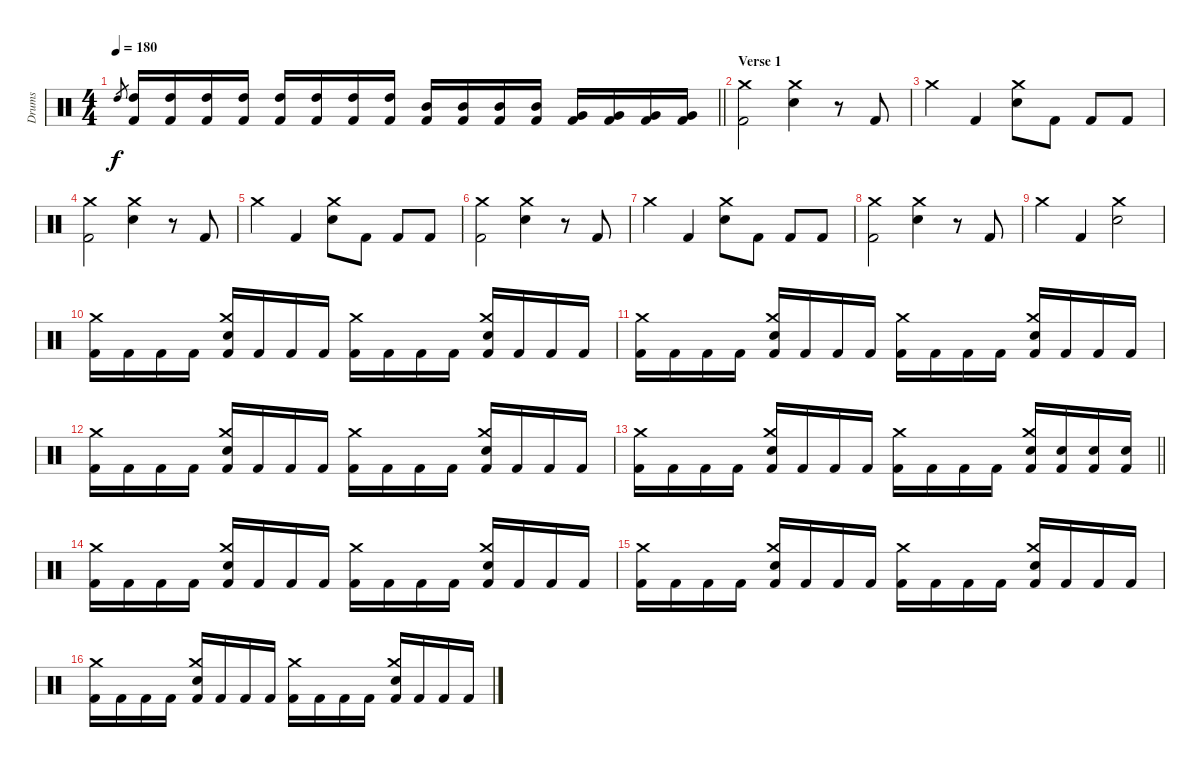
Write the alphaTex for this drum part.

\track ("Drums" "Drums") {instrument percussion}
\staff {score}
\articulation defaults
\ts (4 4)
\tempo 180
\clef neutral
\barLineRight lightlight
\ks c "High Tom (hit)".8{gr dy f}
("High Tom (hit)" "Kick (hit) 2").16 ("High Tom (hit)" "Kick (hit) 2").16 ("High Tom (hit)" "Kick (hit) 2").16 ("High Tom (hit)" "Kick (hit) 2").16 ("High Tom (hit)" "Kick (hit) 2").16 ("High Tom (hit)" "Kick (hit) 2").16 ("High Tom (hit)" "Kick (hit) 2").16 ("High Tom (hit)" "Kick (hit) 2").16 ("Mid Tom (hit)" "Kick (hit) 2").16 ("Mid Tom (hit)" "Kick (hit) 2").16 ("Mid Tom (hit)" "Kick (hit) 2").16 ("Mid Tom (hit)" "Kick (hit) 2").16 ("Very Low Tom (hit)" "Kick (hit) 2").16 ("Very Low Tom (hit)" "Kick (hit) 2").16 ("Very Low Tom (hit)" "Kick (hit) 2").16 ("Very Low Tom (hit)" "Kick (hit) 2").16 |
\section ("" "Verse 1")
("Crash medium (hit)" "Kick (hit) 2").2 ("Crash medium (hit)" "Snare (hit) 2").4 r.8 "Kick (hit) 2".8 |
"Crash medium (hit)".4 "Kick (hit) 2".4 ("Crash medium (hit)" "Snare (hit) 2").8 "Kick (hit) 2".8 "Kick (hit) 2".8 "Kick (hit) 2".8 |
("Crash medium (hit)" "Kick (hit) 2").2 ("Crash medium (hit)" "Snare (hit) 2").4 r.8 "Kick (hit) 2".8 |
"Crash medium (hit)".4 "Kick (hit) 2".4 ("Crash medium (hit)" "Snare (hit) 2").8 "Kick (hit) 2".8 "Kick (hit) 2".8 "Kick (hit) 2".8 |
("Crash medium (hit)" "Kick (hit) 2").2 ("Crash medium (hit)" "Snare (hit) 2").4 r.8 "Kick (hit) 2".8 |
"Crash medium (hit)".4 "Kick (hit) 2".4 ("Crash medium (hit)" "Snare (hit) 2").8 "Kick (hit) 2".8 "Kick (hit) 2".8 "Kick (hit) 2".8 |
("Crash medium (hit)" "Kick (hit) 2").2 ("Crash medium (hit)" "Snare (hit) 2").4 r.8 "Kick (hit) 2".8 |
"Crash medium (hit)".4 "Kick (hit) 2".4 ("Crash medium (hit)" "Snare (hit) 2").2 |
("Crash medium (hit)" "Kick (hit) 2").16 "Kick (hit) 2".16 "Kick (hit) 2".16 "Kick (hit) 2".16 ("Crash medium (hit)" "Snare (hit) 2" "Kick (hit) 2").16 "Kick (hit) 2".16 "Kick (hit) 2".16 "Kick (hit) 2".16 ("Crash medium (hit)" "Kick (hit) 2").16 "Kick (hit) 2".16 "Kick (hit) 2".16 "Kick (hit) 2".16 ("Crash medium (hit)" "Snare (hit) 2" "Kick (hit) 2").16 "Kick (hit) 2".16 "Kick (hit) 2".16 "Kick (hit) 2".16 |
("Crash medium (hit)" "Kick (hit) 2").16 "Kick (hit) 2".16 "Kick (hit) 2".16 "Kick (hit) 2".16 ("Crash medium (hit)" "Snare (hit) 2" "Kick (hit) 2").16 "Kick (hit) 2".16 "Kick (hit) 2".16 "Kick (hit) 2".16 ("Crash medium (hit)" "Kick (hit) 2").16 "Kick (hit) 2".16 "Kick (hit) 2".16 "Kick (hit) 2".16 ("Crash medium (hit)" "Snare (hit) 2" "Kick (hit) 2").16 "Kick (hit) 2".16 "Kick (hit) 2".16 "Kick (hit) 2".16 |
("Crash medium (hit)" "Kick (hit) 2").16 "Kick (hit) 2".16 "Kick (hit) 2".16 "Kick (hit) 2".16 ("Crash medium (hit)" "Snare (hit) 2" "Kick (hit) 2").16 "Kick (hit) 2".16 "Kick (hit) 2".16 "Kick (hit) 2".16 ("Crash medium (hit)" "Kick (hit) 2").16 "Kick (hit) 2".16 "Kick (hit) 2".16 "Kick (hit) 2".16 ("Crash medium (hit)" "Snare (hit) 2" "Kick (hit) 2").16 "Kick (hit) 2".16 "Kick (hit) 2".16 "Kick (hit) 2".16 |
\barLineRight lightlight
("Crash medium (hit)" "Kick (hit) 2").16 "Kick (hit) 2".16 "Kick (hit) 2".16 "Kick (hit) 2".16 ("Crash medium (hit)" "Snare (hit) 2" "Kick (hit) 2").16 "Kick (hit) 2".16 "Kick (hit) 2".16 "Kick (hit) 2".16 ("Crash medium (hit)" "Kick (hit) 2").16 "Kick (hit) 2".16 "Kick (hit) 2".16 "Kick (hit) 2".16 ("Crash medium (hit)" "Snare (hit) 2" "Kick (hit) 2").16 ("Snare (hit) 2" "Kick (hit) 2").16 ("Snare (hit) 2" "Kick (hit) 2").16 ("Snare (hit) 2" "Kick (hit) 2").16 |
("Crash medium (hit)" "Kick (hit) 2").16 "Kick (hit) 2".16 "Kick (hit) 2".16 "Kick (hit) 2".16 ("Crash medium (hit)" "Snare (hit) 2" "Kick (hit) 2").16 "Kick (hit) 2".16 "Kick (hit) 2".16 "Kick (hit) 2".16 ("Crash medium (hit)" "Kick (hit) 2").16 "Kick (hit) 2".16 "Kick (hit) 2".16 "Kick (hit) 2".16 ("Crash medium (hit)" "Snare (hit) 2" "Kick (hit) 2").16 "Kick (hit) 2".16 "Kick (hit) 2".16 "Kick (hit) 2".16 |
("Crash medium (hit)" "Kick (hit) 2").16 "Kick (hit) 2".16 "Kick (hit) 2".16 "Kick (hit) 2".16 ("Crash medium (hit)" "Snare (hit) 2" "Kick (hit) 2").16 "Kick (hit) 2".16 "Kick (hit) 2".16 "Kick (hit) 2".16 ("Crash medium (hit)" "Kick (hit) 2").16 "Kick (hit) 2".16 "Kick (hit) 2".16 "Kick (hit) 2".16 ("Crash medium (hit)" "Snare (hit) 2" "Kick (hit) 2").16 "Kick (hit) 2".16 "Kick (hit) 2".16 "Kick (hit) 2".16 |
("Crash medium (hit)" "Kick (hit) 2").16 "Kick (hit) 2".16 "Kick (hit) 2".16 "Kick (hit) 2".16 ("Crash medium (hit)" "Snare (hit) 2" "Kick (hit) 2").16 "Kick (hit) 2".16 "Kick (hit) 2".16 "Kick (hit) 2".16 ("Crash medium (hit)" "Kick (hit) 2").16 "Kick (hit) 2".16 "Kick (hit) 2".16 "Kick (hit) 2".16 ("Crash medium (hit)" "Snare (hit) 2" "Kick (hit) 2").16 "Kick (hit) 2".16 "Kick (hit) 2".16 "Kick (hit) 2".16
